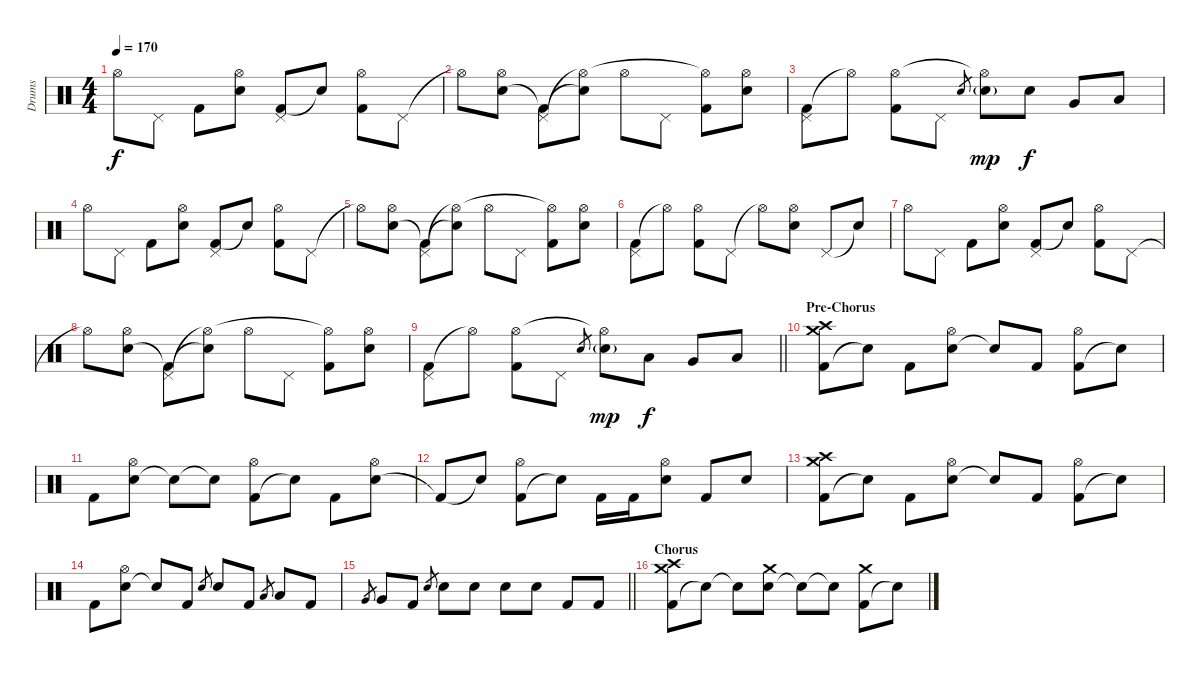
\track ("Drums" "Drums") {instrument percussion}
\staff {score}
\articulation defaults
\ts (4 4)
\tempo 170
\clef neutral
\ks c "Hi-Hat (open)".8{dy f} "Pedal Hi-Hat (hit)".8 "Kick (hit) 2".8
("Electric Snare (hit)" "Hi-Hat (open)").8 ("Kick (hit) 2" "Pedal Hi-Hat (hit)").8 "Snare (hit)"{t}.8 ("Kick (hit) 2" "Hi-Hat (open)").8 "Pedal Hi-Hat (hit)".8 |
"Hi-Hat (open)"{t}.8 ("Electric Snare (hit)" "Hi-Hat (open)").8 ("Kick (hit) 2"{t} "Pedal Hi-Hat (hit)").8 ("Electric Snare (hit)"{t} "Hi-Hat (open)"{t}).8 "Hi-Hat (open)".8 "Pedal Hi-Hat (hit)".8 ("Kick (hit) 2" "Hi-Hat (open)"{t}).8 ("Electric Snare (hit)" "Hi-Hat (open)").8 |
("Kick (hit) 2" "Pedal Hi-Hat (hit)").8 "Hi-Hat (open)"{t}.8 ("Kick (hit) 2" "Hi-Hat (open)").8 "Pedal Hi-Hat (hit)".8 "Electric Snare (hit)".8{gr} ("Electric Snare (hit)"{g} "Hi-Hat (open)"{t}).8{dy mp} "Electric Snare (hit)".8{dy f} "Very Low Tom (hit)".8 "Low Floor Tom (hit)".8 |
"Hi-Hat (open)".8 "Pedal Hi-Hat (hit)".8 "Kick (hit) 2".8 ("Electric Snare (hit)" "Hi-Hat (open)").8 ("Kick (hit) 2" "Pedal Hi-Hat (hit)").8 "Snare (hit)"{t}.8 ("Kick (hit) 2" "Hi-Hat (open)").8 "Pedal Hi-Hat (hit)".8 |
"Hi-Hat (open)"{t}.8 ("Electric Snare (hit)" "Hi-Hat (open)").8 ("Kick (hit) 2"{t} "Pedal Hi-Hat (hit)").8 ("Electric Snare (hit)"{t} "Hi-Hat (open)"{t}).8 "Hi-Hat (open)".8 "Pedal Hi-Hat (hit)".8 ("Kick (hit) 2" "Hi-Hat (open)"{t}).8 ("Electric Snare (hit)" "Hi-Hat (open)").8 |
("Kick (hit) 2" "Pedal Hi-Hat (hit)").8 "Hi-Hat (open)"{t}.8 ("Kick (hit) 2" "Hi-Hat (open)").8 "Pedal Hi-Hat (hit)".8 "Hi-Hat (open)"{t}.8 ("Electric Snare (hit)" "Hi-Hat (open)").8 "Pedal Hi-Hat (hit)".8 "Snare (hit)"{t}.8 |
"Hi-Hat (open)".8 "Pedal Hi-Hat (hit)".8 "Kick (hit) 2".8 ("Electric Snare (hit)" "Hi-Hat (open)").8 ("Kick (hit) 2" "Pedal Hi-Hat (hit)").8 "Snare (hit)"{t}.8 ("Kick (hit) 2" "Hi-Hat (open)").8 "Pedal Hi-Hat (hit)".8 |
"Hi-Hat (open)"{t}.8 ("Electric Snare (hit)" "Hi-Hat (open)").8 ("Kick (hit) 2"{t} "Pedal Hi-Hat (hit)").8 ("Electric Snare (hit)"{t} "Hi-Hat (open)"{t}).8 "Hi-Hat (open)".8 "Pedal Hi-Hat (hit)".8 ("Kick (hit) 2" "Hi-Hat (open)"{t}).8 ("Electric Snare (hit)" "Hi-Hat (open)").8 |
\barLineRight lightlight
("Kick (hit) 2" "Pedal Hi-Hat (hit)").8 "Hi-Hat (open)"{t}.8 ("Kick (hit) 2" "Hi-Hat (open)").8 "Pedal Hi-Hat (hit)".8 "Electric Snare (hit)".8{gr} ("Electric Snare (hit)"{g} "Hi-Hat (open)"{t}).8{dy mp} "Low Tom (hit)".8{dy f} "Very Low Tom (hit)".8 "Low Floor Tom (hit)".8 |
\section ("" "Pre-Chorus")
("Kick (hit) 2" "Crash medium (hit)" "Crash high (hit)").8 "Snare (hit)"{t}.8 "Kick (hit) 2".8 ("Electric Snare (hit)" "Hi-Hat (open)").8 "Electric Snare (hit)"{t}.8 "Kick (hit) 2".8 ("Kick (hit) 2" "Hi-Hat (open)").8 "Snare (hit)"{t}.8 |
"Kick (hit) 2".8 ("Electric Snare (hit)" "Hi-Hat (open)").8 "Snare (hit)"{t}.8 "Snare (hit)"{t}.8 ("Kick (hit) 2" "Hi-Hat (open)").8 "Snare (hit)"{t}.8 "Kick (hit) 2".8 ("Electric Snare (hit)" "Hi-Hat (open)").8 |
"Kick (hit) 2"{t}.8 "Snare (hit)"{t}.8 ("Kick (hit) 2" "Hi-Hat (open)").8 "Snare (hit)"{t}.8 "Kick (hit) 2".16 "Kick (hit) 2".16 ("Electric Snare (hit)" "Hi-Hat (open)").8 "Kick (hit) 2".8 "Electric Snare (hit)".8 |
("Kick (hit) 2" "Crash medium (hit)" "Crash high (hit)").8 "Snare (hit)"{t}.8 "Kick (hit) 2".8 ("Electric Snare (hit)" "Hi-Hat (open)").8 "Electric Snare (hit)"{t}.8 "Kick (hit) 2".8 ("Kick (hit) 2" "Hi-Hat (open)").8 "Snare (hit)"{t}.8 |
"Kick (hit) 2".8 ("Electric Snare (hit)" "Hi-Hat (open)").8 "Snare (hit)"{t}.8 "Kick (hit) 2".8 "Electric Snare (hit)".8{gr} "Electric Snare (hit)".8 "Kick (hit) 2".8 "Low Tom (hit)".8{gr} "Low Tom (hit)".8 "Kick (hit) 2".8 |
\barLineRight lightlight "Very Low Tom (hit)".8{gr} "Very Low Tom (hit)".8 "Kick (hit) 2".8 "Electric Snare (hit)".8{gr} "Electric Snare (hit)".8 "Electric Snare (hit)".8 "Electric Snare (hit)".8 "Electric Snare (hit)".8 "Kick (hit) 2".8 "Kick (hit) 2".8
|
\section ("" "Chorus")
("Kick (hit) 2" "Crash medium (hit)" "Crash high (hit)").8 "Snare (hit)"{t}.8 "Snare (hit)"{t}.8 ("Electric Snare (hit)" "Crash medium (hit)").8 "Snare (hit)"{t}.8 "Snare (hit)"{t}.8 ("Kick (hit) 2" "Crash medium (hit)").8 "Snare (hit)"{t}.8
